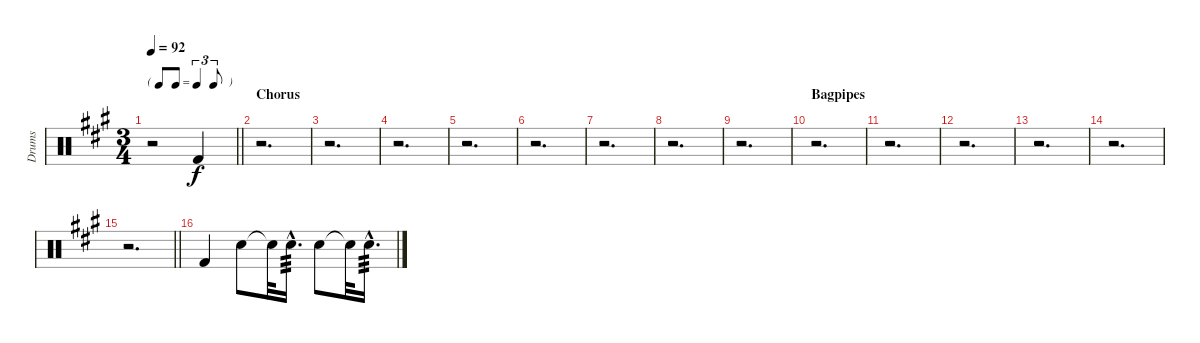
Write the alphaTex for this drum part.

\track ("Drums" "Drums") {instrument percussion}
\staff {score}
\articulation defaults
\ts (3 4)
\tf triplet8th
\tempo 92
\clef neutral
\barLineRight lightlight
\ks a
r.2{dy f} "Kick (hit) 2".4 |
\section ("" "Chorus")
r.2{d} |
r.2{d} |
r.2{d} |
r.2{d} |
r.2{d} |
r.2{d} |
r.2{d} |
r.2{d} |
\section ("" "Bagpipes")
r.2{d} |
r.2{d} |
r.2{d} |
r.2{d} |
r.2{d} |
\barLineRight lightlight
r.2{d} |
"Kick (hit) 2".4 "Snare (hit) 2".8{balance 0} "Snare (hit) 2"{t}.32 "Snare (hit) 2"{hac}.16{d tp 3 balance 16} "Snare (hit) 2".8{balance 0} "Snare (hit) 2"{t}.32 "Snare (hit) 2"{hac}.16{d tp 3 balance 16}
